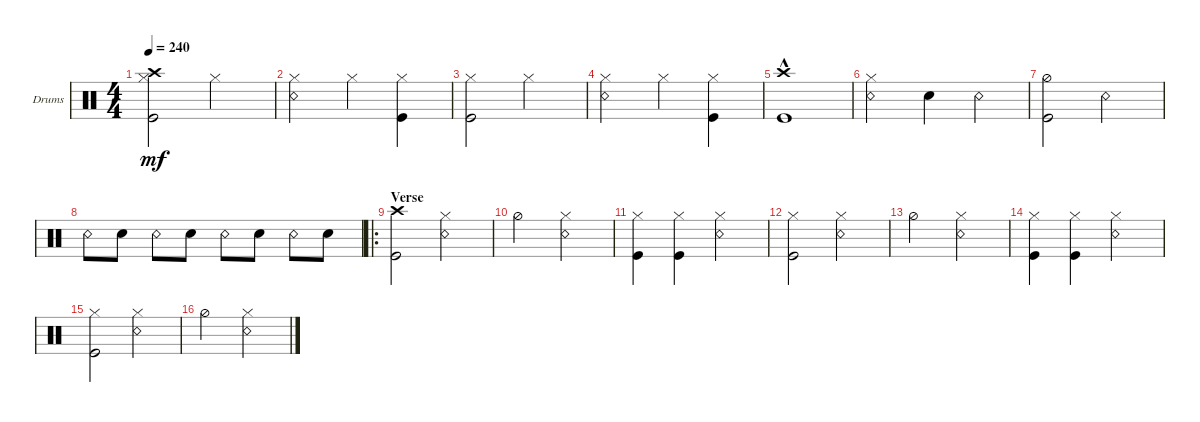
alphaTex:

\defaultSystemsLayout 4
\bracketExtendMode groupsimilarinstruments
\firstSystemTrackNameOrientation horizontal
\otherSystemsTrackNameOrientation horizontal
\track ("Drumkit" "Drums") {instrument percussion}
\staff {score}
\articulation defaults
\ts (4 4)
\tempo 240
\clef neutral
\ks c
("Kick (hit)" "Hi-Hat (closed)" "Crash high (hit)").2{dy mf} "Hi-Hat (closed)".2 |
("Snare (rim shot)" "Hi-Hat (closed)").2 "Hi-Hat (closed)".4 ("Kick (hit)" "Hi-Hat (closed)").4 |
("Kick (hit)" "Hi-Hat (closed)").2 "Hi-Hat (closed)".2 |
("Snare (rim shot)" "Hi-Hat (closed)").2 "Hi-Hat (closed)".4 ("Kick (hit)" "Hi-Hat (closed)").4 |
("Crash high (hit)"{hac} "Kick (hit)"{hac}).1 |
("Snare (rim shot)" "Hi-Hat (closed)").2 "Snare (hit) 2".4 "Snare (rim shot)".4 |
("Kick (hit)" "Hi-Hat (half)").2 "Snare (rim shot)".2 |
"Snare (rim shot)".8 "Snare (hit) 2".8 "Snare (rim shot)".8 "Snare (hit) 2".8 "Snare (rim shot)".8 "Snare (hit) 2".8 "Snare (rim shot)".8 "Snare (hit) 2".8 |
\ro
\section ("" "Verse")
("Crash high (hit)" "Kick (hit)").2 ("Snare (rim shot)" "Hi-Hat (closed)").2 |
"Hi-Hat (half)".2 ("Snare (rim shot)" "Hi-Hat (closed)").2 |
("Kick (hit)" "Hi-Hat (closed)").4 ("Kick (hit)" "Hi-Hat (closed)").4 ("Snare (rim shot)" "Hi-Hat (closed)").2 |
("Kick (hit)" "Hi-Hat (closed)").2 ("Snare (rim shot)" "Hi-Hat (closed)").2 |
"Hi-Hat (half)".2 ("Snare (rim shot)" "Hi-Hat (closed)").2 |
("Kick (hit)" "Hi-Hat (closed)").4 ("Kick (hit)" "Hi-Hat (closed)").4 ("Snare (rim shot)" "Hi-Hat (closed)").2 |
("Kick (hit)" "Hi-Hat (closed)").2 ("Snare (rim shot)" "Hi-Hat (closed)").2 |
"Hi-Hat (half)".2 ("Snare (rim shot)" "Hi-Hat (closed)").2
